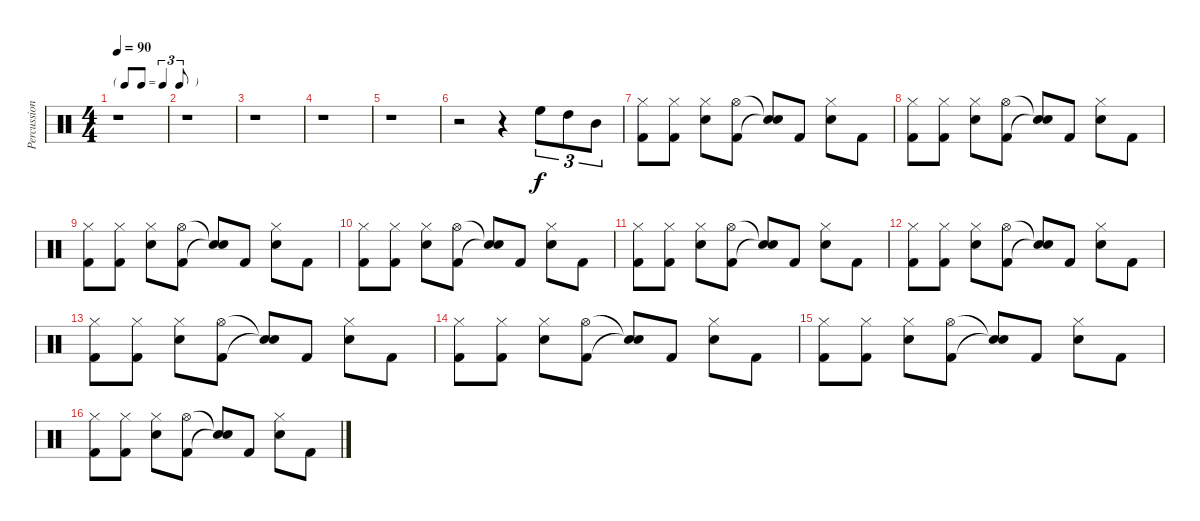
\track ("Percussions" "Percussion") {instrument percussion}
\staff {score}
\articulation defaults
\ts (4 4)
\tf triplet8th
\tempo 90
\clef neutral
\ks c
r.1{dy f} |
r.1 |
r.1 |
r.1 |
r.1 |
r.2 r.4 "High Floor Tom (hit)".8{tu (3 2)} "High Tom (hit)".8{tu (3 2)} "Mid Tom (hit)".8{tu (3 2)} |
("Hi-Hat (closed)" "Kick (hit) 2").8 ("Hi-Hat (closed)" "Kick (hit) 2").8 ("Hi-Hat (closed)" "Electric Snare (hit)").8 ("Hi-Hat (open)" "Kick (hit) 2").8 ("Snare (hit)"{t} "Snare (hit)"{t}).8 "Kick (hit) 2".8 ("Hi-Hat (closed)" "Electric Snare (hit)").8 "Kick (hit) 2".8 |
("Hi-Hat (closed)" "Kick (hit) 2").8 ("Hi-Hat (closed)" "Kick (hit) 2").8 ("Hi-Hat (closed)" "Electric Snare (hit)").8 ("Hi-Hat (open)" "Kick (hit) 2").8 ("Snare (hit)"{t} "Snare (hit)"{t}).8 "Kick (hit) 2".8 ("Hi-Hat (closed)" "Electric Snare (hit)").8 "Kick (hit) 2".8 |
("Hi-Hat (closed)" "Kick (hit) 2").8 ("Hi-Hat (closed)" "Kick (hit) 2").8 ("Hi-Hat (closed)" "Electric Snare (hit)").8 ("Hi-Hat (open)" "Kick (hit) 2").8 ("Snare (hit)"{t} "Snare (hit)"{t}).8 "Kick (hit) 2".8 ("Hi-Hat (closed)" "Electric Snare (hit)").8 "Kick (hit) 2".8 |
("Hi-Hat (closed)" "Kick (hit) 2").8 ("Hi-Hat (closed)" "Kick (hit) 2").8 ("Hi-Hat (closed)" "Electric Snare (hit)").8 ("Hi-Hat (open)" "Kick (hit) 2").8 ("Snare (hit)"{t} "Snare (hit)"{t}).8 "Kick (hit) 2".8 ("Hi-Hat (closed)" "Electric Snare (hit)").8 "Kick (hit) 2".8 |
("Hi-Hat (closed)" "Kick (hit) 2").8 ("Hi-Hat (closed)" "Kick (hit) 2").8 ("Hi-Hat (closed)" "Electric Snare (hit)").8 ("Hi-Hat (open)" "Kick (hit) 2").8 ("Snare (hit)"{t} "Snare (hit)"{t}).8 "Kick (hit) 2".8 ("Hi-Hat (closed)" "Electric Snare (hit)").8 "Kick (hit) 2".8 |
("Hi-Hat (closed)" "Kick (hit) 2").8 ("Hi-Hat (closed)" "Kick (hit) 2").8 ("Hi-Hat (closed)" "Electric Snare (hit)").8 ("Hi-Hat (open)" "Kick (hit) 2").8 ("Snare (hit)"{t} "Snare (hit)"{t}).8 "Kick (hit) 2".8 ("Hi-Hat (closed)" "Electric Snare (hit)").8 "Kick (hit) 2".8 |
("Hi-Hat (closed)" "Kick (hit) 2").8 ("Hi-Hat (closed)" "Kick (hit) 2").8 ("Hi-Hat (closed)" "Electric Snare (hit)").8 ("Hi-Hat (open)" "Kick (hit) 2").8 ("Snare (hit)"{t} "Snare (hit)"{t}).8 "Kick (hit) 2".8 ("Hi-Hat (closed)" "Electric Snare (hit)").8 "Kick (hit) 2".8 |
("Hi-Hat (closed)" "Kick (hit) 2").8 ("Hi-Hat (closed)" "Kick (hit) 2").8 ("Hi-Hat (closed)" "Electric Snare (hit)").8 ("Hi-Hat (open)" "Kick (hit) 2").8 ("Snare (hit)"{t} "Snare (hit)"{t}).8 "Kick (hit) 2".8 ("Hi-Hat (closed)" "Electric Snare (hit)").8 "Kick (hit) 2".8 |
("Hi-Hat (closed)" "Kick (hit) 2").8 ("Hi-Hat (closed)" "Kick (hit) 2").8 ("Hi-Hat (closed)" "Electric Snare (hit)").8 ("Hi-Hat (open)" "Kick (hit) 2").8 ("Snare (hit)"{t} "Snare (hit)"{t}).8 "Kick (hit) 2".8 ("Hi-Hat (closed)" "Electric Snare (hit)").8 "Kick (hit) 2".8 |
("Hi-Hat (closed)" "Kick (hit) 2").8 ("Hi-Hat (closed)" "Kick (hit) 2").8 ("Hi-Hat (closed)" "Electric Snare (hit)").8 ("Hi-Hat (open)" "Kick (hit) 2").8 ("Snare (hit)"{t} "Snare (hit)"{t}).8 "Kick (hit) 2".8 ("Hi-Hat (closed)" "Electric Snare (hit)").8 "Kick (hit) 2".8
